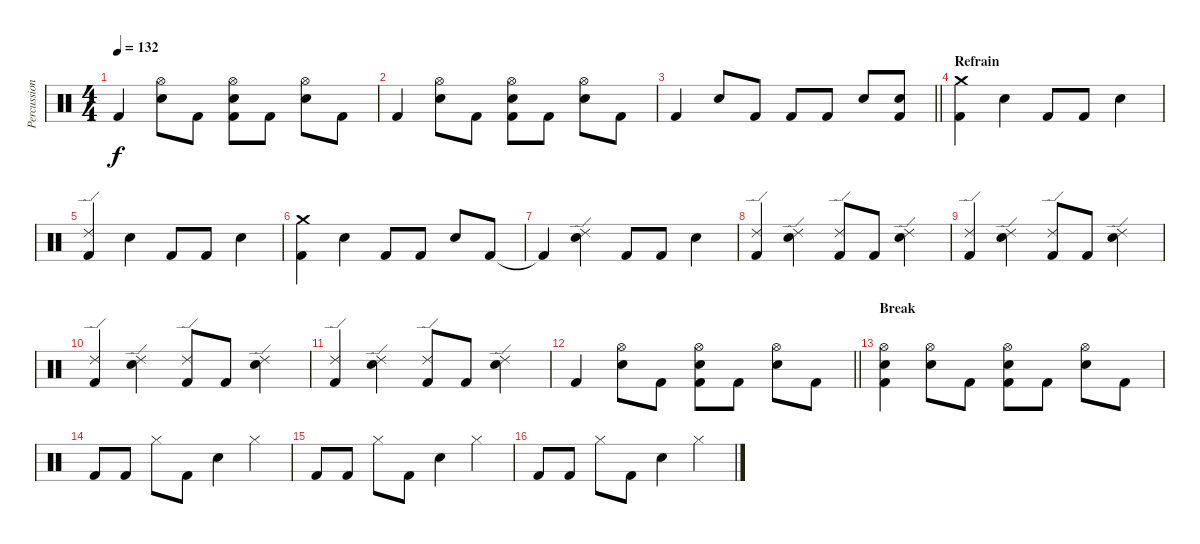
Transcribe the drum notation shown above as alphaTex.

\track ("Percussions" "Percussion") {instrument percussion}
\staff {score}
\articulation defaults
\ts (4 4)
\tempo 132
\clef neutral
\ks c "Kick (hit) 2".4{dy f}
("Electric Snare (hit)" "Hi-Hat (open)").8 "Kick (hit) 2".8 ("Kick (hit) 2" "Electric Snare (hit)" "Hi-Hat (open)").8 "Kick (hit) 2".8 ("Electric Snare (hit)" "Hi-Hat (open)").8 "Kick (hit) 2".8 |
"Kick (hit) 2".4 ("Electric Snare (hit)" "Hi-Hat (open)").8 "Kick (hit) 2".8 ("Kick (hit) 2" "Electric Snare (hit)" "Hi-Hat (open)").8 "Kick (hit) 2".8 ("Electric Snare (hit)" "Hi-Hat (open)").8 "Kick (hit) 2".8 |
\barLineRight lightlight "Kick (hit) 2".4 "Electric Snare (hit)".8 "Kick (hit) 2".8 "Kick (hit) 2".8 "Kick (hit) 2".8 "Electric Snare (hit)".8
("Kick (hit) 2" "Electric Snare (hit)").8 |
\section ("" "Refrain")
("Kick (hit) 2" "Crash medium (hit)").4 "Electric Snare (hit)".4 "Kick (hit) 2".8 "Kick (hit) 2".8 "Electric Snare (hit)".4 |
("Kick (hit) 2" "Ride (edge) 2").4 "Electric Snare (hit)".4 "Kick (hit) 2".8 "Kick (hit) 2".8 "Electric Snare (hit)".4 |
("Kick (hit) 2" "Crash medium (hit)").4 "Electric Snare (hit)".4 "Kick (hit) 2".8 "Kick (hit) 2".8 "Electric Snare (hit)".8 "Kick (hit) 2".8 |
"Kick (hit) 2"{t}.4 ("Electric Snare (hit)" "Ride (edge) 2").4 "Kick (hit) 2".8 "Kick (hit) 2".8 "Electric Snare (hit)".4 |
("Kick (hit) 2" "Ride (edge) 2").4 ("Electric Snare (hit)" "Ride (edge) 2").4 ("Kick (hit) 2" "Ride (edge) 2").8 "Kick (hit) 2".8 ("Electric Snare (hit)" "Ride (edge) 2").4 |
("Kick (hit) 2" "Ride (edge) 2").4 ("Electric Snare (hit)" "Ride (edge) 2").4 ("Kick (hit) 2" "Ride (edge) 2").8 "Kick (hit) 2".8 ("Electric Snare (hit)" "Ride (edge) 2").4 |
("Kick (hit) 2" "Ride (edge) 2").4 ("Electric Snare (hit)" "Ride (edge) 2").4 ("Kick (hit) 2" "Ride (edge) 2").8 "Kick (hit) 2".8 ("Electric Snare (hit)" "Ride (edge) 2").4 |
("Kick (hit) 2" "Ride (edge) 2").4 ("Electric Snare (hit)" "Ride (edge) 2").4 ("Kick (hit) 2" "Ride (edge) 2").8 "Kick (hit) 2".8 ("Electric Snare (hit)" "Ride (edge) 2").4 |
\barLineRight lightlight "Kick (hit) 2".4
("Electric Snare (hit)" "Hi-Hat (open)").8 "Kick (hit) 2".8 ("Kick (hit) 2" "Electric Snare (hit)" "Hi-Hat (open)").8 "Kick (hit) 2".8 ("Electric Snare (hit)" "Hi-Hat (open)").8 "Kick (hit) 2".8 |
\section ("" "Break")
("Kick (hit) 2" "Electric Snare (hit)" "Hi-Hat (open)").4 ("Electric Snare (hit)" "Hi-Hat (open)").8 "Kick (hit) 2".8 ("Kick (hit) 2" "Electric Snare (hit)" "Hi-Hat (open)").8 "Kick (hit) 2".8 ("Electric Snare (hit)" "Hi-Hat (open)").8 "Kick (hit) 2".8 |
"Kick (hit) 2".8 "Kick (hit) 2".8 "Hi-Hat (closed)".8 "Kick (hit) 2".8 "Electric Snare (hit)".4 "Hi-Hat (closed)".4 |
"Kick (hit) 2".8 "Kick (hit) 2".8 "Hi-Hat (closed)".8 "Kick (hit) 2".8 "Electric Snare (hit)".4 "Hi-Hat (closed)".4 |
"Kick (hit) 2".8 "Kick (hit) 2".8 "Hi-Hat (closed)".8 "Kick (hit) 2".8 "Electric Snare (hit)".4 "Hi-Hat (closed)".4
